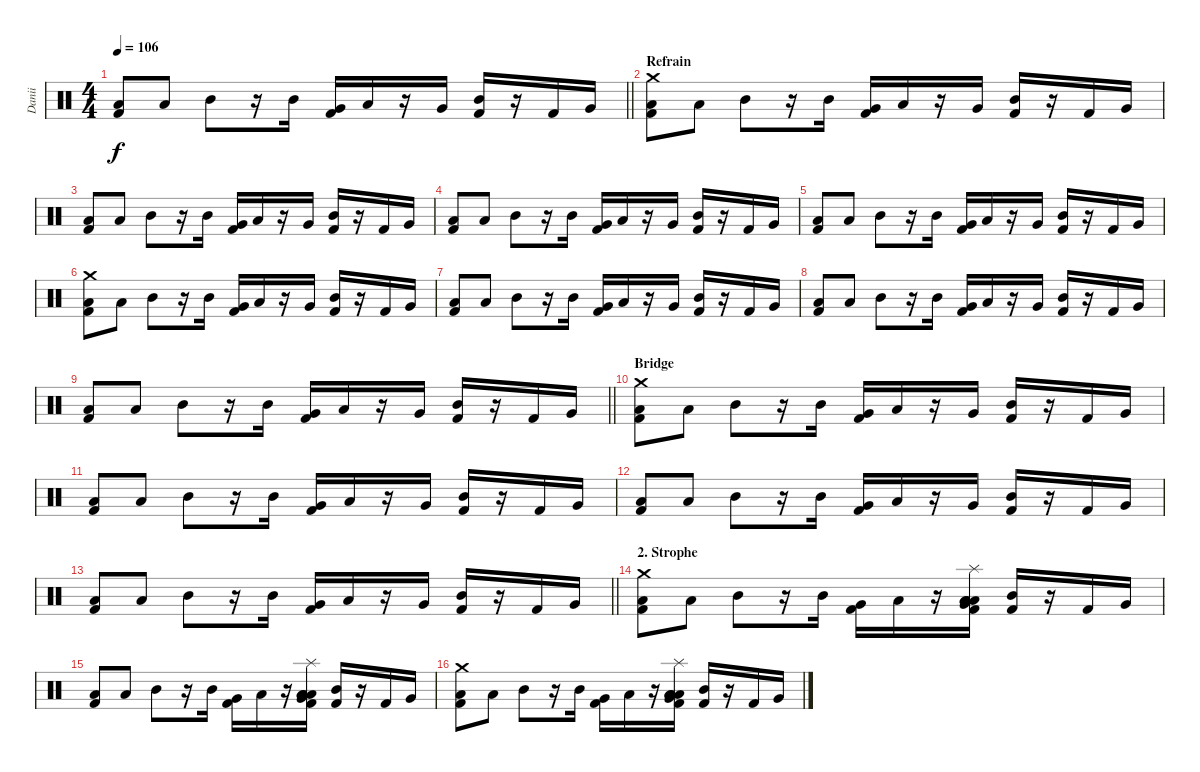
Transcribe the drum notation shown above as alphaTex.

\track ("Danii" "Danii") {instrument percussion}
\staff {score}
\articulation defaults
\ts (4 4)
\tempo 106
\clef neutral
\barLineRight lightlight
\ks c
("Low Floor Tom (hit)" "Kick (hit) 2").8{dy f} "Low Floor Tom (hit)".8 "Mid Tom (hit)".8 r.16 "Mid Tom (hit)".16 ("Very Low Tom (hit)" "Kick (hit) 2").16 "Low Tom (hit)".16 r.16 "Very Low Tom (hit)".16 ("Mid Tom (hit)" "Kick (hit) 2").16 r.16 "Kick (hit) 2".16 "Very Low Tom (hit)".16 |
\section ("" "Refrain")
("Low Floor Tom (hit)" "Kick (hit) 2" "Crash medium (hit)").8 "Low Floor Tom (hit)".8 "Mid Tom (hit)".8 r.16 "Mid Tom (hit)".16 ("Very Low Tom (hit)" "Kick (hit) 2").16 "Low Tom (hit)".16 r.16 "Very Low Tom (hit)".16 ("Mid Tom (hit)" "Kick (hit) 2").16 r.16 "Kick (hit) 2".16 "Very Low Tom (hit)".16 |
("Low Floor Tom (hit)" "Kick (hit) 2").8 "Low Floor Tom (hit)".8 "Mid Tom (hit)".8 r.16 "Mid Tom (hit)".16 ("Very Low Tom (hit)" "Kick (hit) 2").16 "Low Tom (hit)".16 r.16 "Very Low Tom (hit)".16 ("Mid Tom (hit)" "Kick (hit) 2").16 r.16 "Kick (hit) 2".16 "Very Low Tom (hit)".16 |
("Low Floor Tom (hit)" "Kick (hit) 2").8 "Low Floor Tom (hit)".8 "Mid Tom (hit)".8 r.16 "Mid Tom (hit)".16 ("Very Low Tom (hit)" "Kick (hit) 2").16 "Low Tom (hit)".16 r.16 "Very Low Tom (hit)".16 ("Mid Tom (hit)" "Kick (hit) 2").16 r.16 "Kick (hit) 2".16 "Very Low Tom (hit)".16 |
("Low Floor Tom (hit)" "Kick (hit) 2").8 "Low Floor Tom (hit)".8 "Mid Tom (hit)".8 r.16 "Mid Tom (hit)".16 ("Very Low Tom (hit)" "Kick (hit) 2").16 "Low Tom (hit)".16 r.16 "Very Low Tom (hit)".16 ("Mid Tom (hit)" "Kick (hit) 2").16 r.16 "Kick (hit) 2".16 "Very Low Tom (hit)".16 |
("Low Floor Tom (hit)" "Kick (hit) 2" "Crash medium (hit)").8 "Low Floor Tom (hit)".8 "Mid Tom (hit)".8 r.16 "Mid Tom (hit)".16 ("Very Low Tom (hit)" "Kick (hit) 2").16 "Low Tom (hit)".16 r.16 "Very Low Tom (hit)".16 ("Mid Tom (hit)" "Kick (hit) 2").16 r.16 "Kick (hit) 2".16 "Very Low Tom (hit)".16 |
("Low Floor Tom (hit)" "Kick (hit) 2").8 "Low Floor Tom (hit)".8 "Mid Tom (hit)".8 r.16 "Mid Tom (hit)".16 ("Very Low Tom (hit)" "Kick (hit) 2").16 "Low Tom (hit)".16 r.16 "Very Low Tom (hit)".16 ("Mid Tom (hit)" "Kick (hit) 2").16 r.16 "Kick (hit) 2".16 "Very Low Tom (hit)".16 |
("Low Floor Tom (hit)" "Kick (hit) 2").8 "Low Floor Tom (hit)".8 "Mid Tom (hit)".8 r.16 "Mid Tom (hit)".16 ("Very Low Tom (hit)" "Kick (hit) 2").16 "Low Tom (hit)".16 r.16 "Very Low Tom (hit)".16 ("Mid Tom (hit)" "Kick (hit) 2").16 r.16 "Kick (hit) 2".16 "Very Low Tom (hit)".16 |
\barLineRight lightlight
("Low Floor Tom (hit)" "Kick (hit) 2").8 "Low Floor Tom (hit)".8 "Mid Tom (hit)".8 r.16 "Mid Tom (hit)".16 ("Very Low Tom (hit)" "Kick (hit) 2").16 "Low Tom (hit)".16 r.16 "Very Low Tom (hit)".16 ("Mid Tom (hit)" "Kick (hit) 2").16 r.16 "Kick (hit) 2".16 "Very Low Tom (hit)".16 |
\section ("" "Bridge")
("Low Floor Tom (hit)" "Kick (hit) 2" "Crash medium (hit)").8 "Low Floor Tom (hit)".8 "Mid Tom (hit)".8 r.16 "Mid Tom (hit)".16 ("Very Low Tom (hit)" "Kick (hit) 2").16 "Low Tom (hit)".16 r.16 "Very Low Tom (hit)".16 ("Mid Tom (hit)" "Kick (hit) 2").16 r.16 "Kick (hit) 2".16 "Very Low Tom (hit)".16 |
("Low Floor Tom (hit)" "Kick (hit) 2").8 "Low Floor Tom (hit)".8 "Mid Tom (hit)".8 r.16 "Mid Tom (hit)".16 ("Very Low Tom (hit)" "Kick (hit) 2").16 "Low Tom (hit)".16 r.16 "Very Low Tom (hit)".16 ("Mid Tom (hit)" "Kick (hit) 2").16 r.16 "Kick (hit) 2".16 "Very Low Tom (hit)".16 |
("Low Floor Tom (hit)" "Kick (hit) 2").8 "Low Floor Tom (hit)".8 "Mid Tom (hit)".8 r.16 "Mid Tom (hit)".16 ("Very Low Tom (hit)" "Kick (hit) 2").16 "Low Tom (hit)".16 r.16 "Very Low Tom (hit)".16 ("Mid Tom (hit)" "Kick (hit) 2").16 r.16 "Kick (hit) 2".16 "Very Low Tom (hit)".16 |
\barLineRight lightlight
("Low Floor Tom (hit)" "Kick (hit) 2").8 "Low Floor Tom (hit)".8 "Mid Tom (hit)".8 r.16 "Mid Tom (hit)".16 ("Very Low Tom (hit)" "Kick (hit) 2").16 "Low Tom (hit)".16 r.16 "Very Low Tom (hit)".16 ("Mid Tom (hit)" "Kick (hit) 2").16 r.16 "Kick (hit) 2".16 "Very Low Tom (hit)".16 |
\section ("" "2. Strophe")
("Low Floor Tom (hit)" "Kick (hit) 2" "Crash medium (hit)").8 "Low Floor Tom (hit)".8 "Mid Tom (hit)".8 r.16 "Mid Tom (hit)".16 ("Very Low Tom (hit)" "Kick (hit) 2").16 "Low Tom (hit)".16 r.16 ("Low Floor Tom (hit)" "Low Floor Tom (hit)" "Very Low Tom (hit)" "Low Floor Tom (hit)" "Kick (hit) 2" "Splash (hit)").16 ("Mid Tom (hit)" "Kick (hit) 2").16 r.16 "Kick (hit) 2".16 "Very Low Tom (hit)".16 |
("Low Floor Tom (hit)" "Kick (hit) 2").8 "Low Floor Tom (hit)".8 "Mid Tom (hit)".8 r.16 "Mid Tom (hit)".16 ("Very Low Tom (hit)" "Kick (hit) 2").16 "Low Tom (hit)".16 r.16 ("Low Floor Tom (hit)" "Low Floor Tom (hit)" "Very Low Tom (hit)" "Low Floor Tom (hit)" "Kick (hit) 2" "Splash (hit)").16 ("Mid Tom (hit)" "Kick (hit) 2").16 r.16 "Kick (hit) 2".16 "Very Low Tom (hit)".16 |
("Low Floor Tom (hit)" "Kick (hit) 2" "Crash medium (hit)").8 "Low Floor Tom (hit)".8 "Mid Tom (hit)".8 r.16 "Mid Tom (hit)".16 ("Very Low Tom (hit)" "Kick (hit) 2").16 "Low Tom (hit)".16 r.16 ("Low Floor Tom (hit)" "Low Floor Tom (hit)" "Very Low Tom (hit)" "Low Floor Tom (hit)" "Kick (hit) 2" "Splash (hit)").16 ("Mid Tom (hit)" "Kick (hit) 2").16 r.16 "Kick (hit) 2".16 "Very Low Tom (hit)".16
